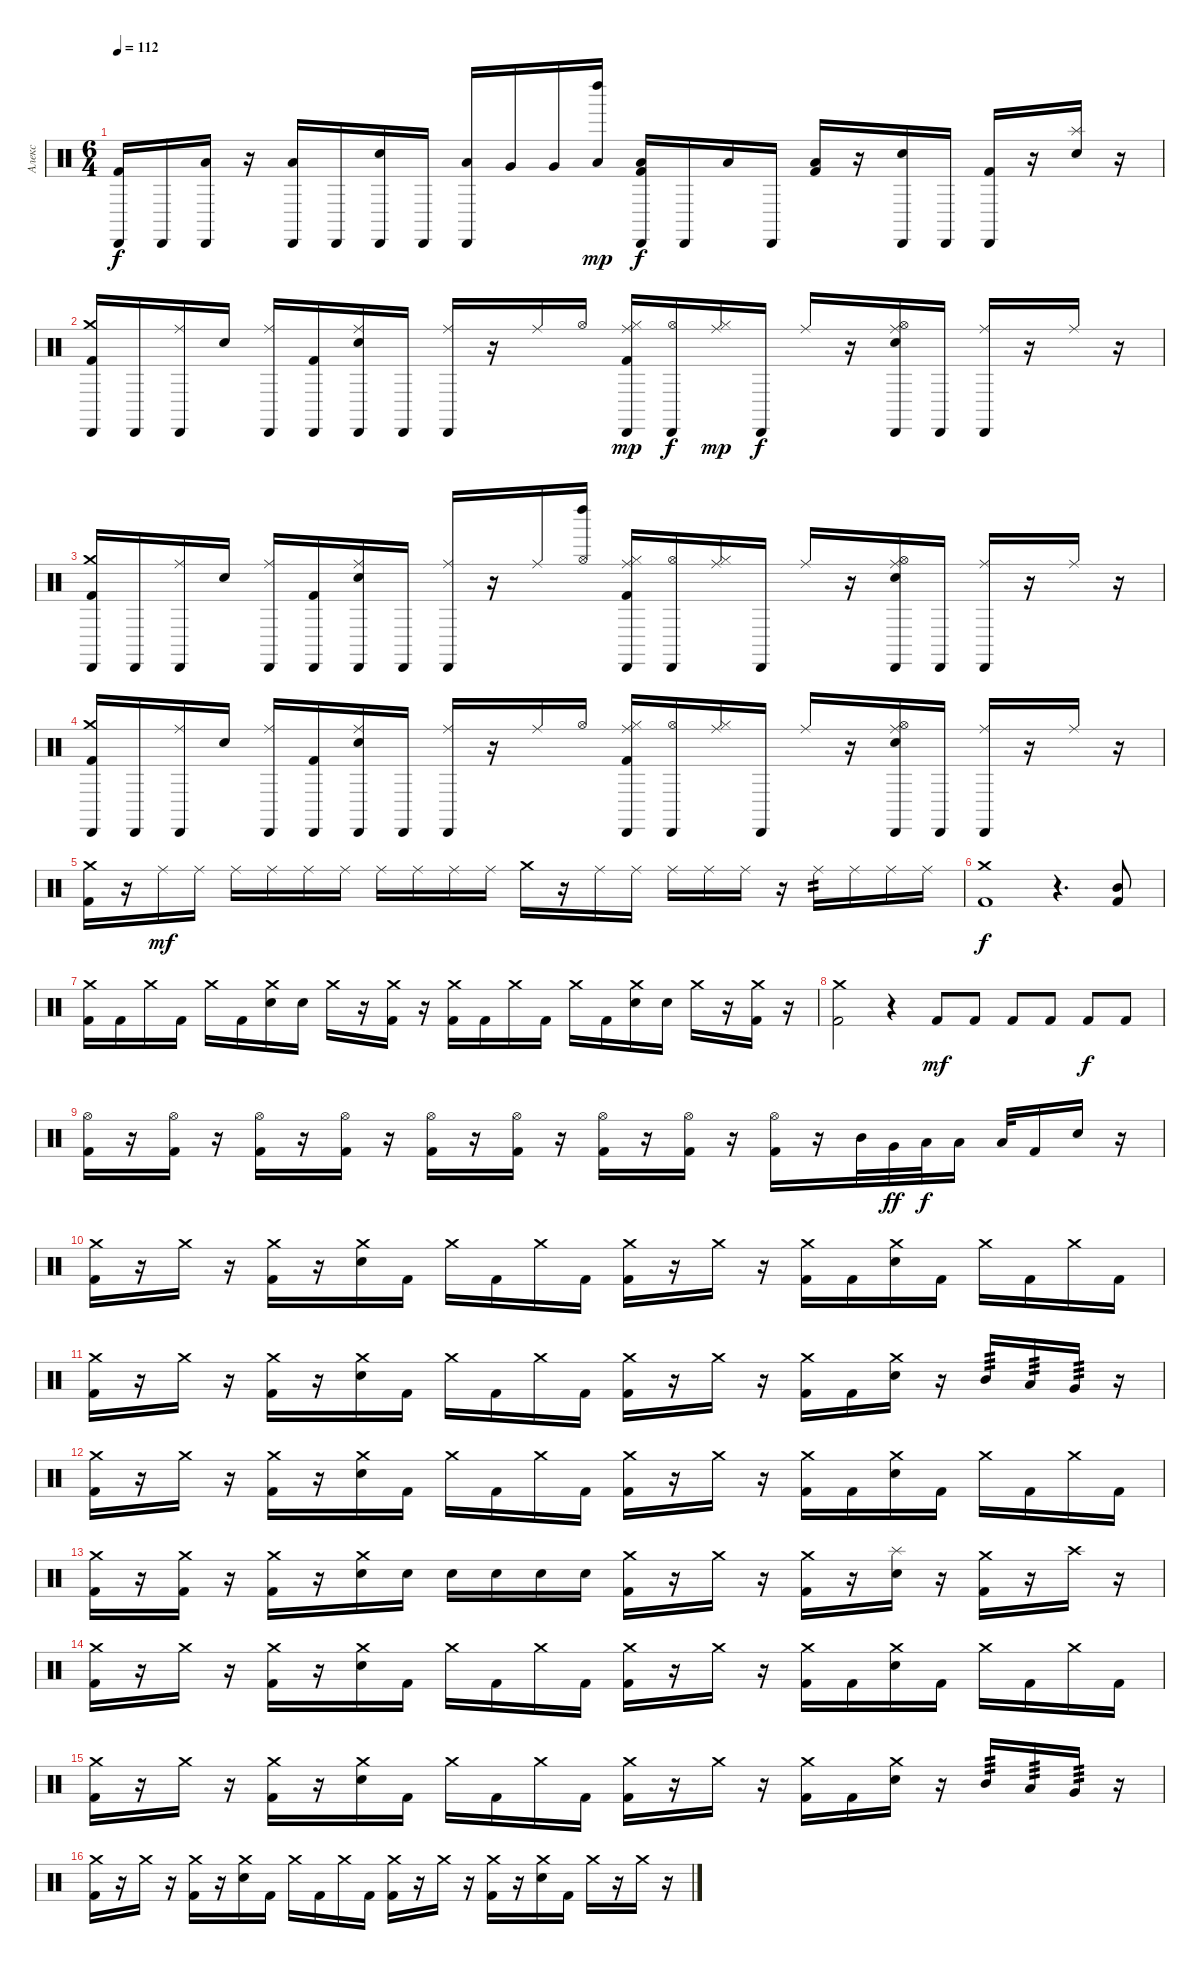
\track ("Алекс" "Алекс") {instrument percussion}
\staff {score}
\articulation defaults
\ts (6 4)
\tempo 112
\clef neutral
\ks c
("Cabasa (hit)" "Kick (hit) 2").16{dy f balance 8} "Cabasa (hit)".16 ("Low Floor Tom (hit)" "Cabasa (hit)").16 r.16 ("Low Floor Tom (hit)" "Cabasa (hit)").16 "Cabasa (hit)".16 ("Electric Snare (hit)" "Cabasa (hit)").16 "Cabasa (hit)".16 ("Low Tom (hit)" "Cabasa (hit)").16{balance 12} "Very Low Tom (hit)".16{balance 8} "Very Low Tom (hit)".16{balance 11} ("Low Floor Tom (hit)" "Left Maraca (hit)").16{dy mp balance 5} ("Low Floor Tom (hit)" "Cabasa (hit)" "Kick (hit) 2").16{dy f balance 5} "Cabasa (hit)".16{balance 8} "Low Floor Tom (hit)".16 "Cabasa (hit)".16 ("Low Floor Tom (hit)" "Kick (hit) 2").16 r.16 ("Electric Snare (hit)" "Cabasa (hit)").16 "Cabasa (hit)".16{balance 4} ("Cabasa (hit)" "Kick (hit) 2").16{balance 4} r.16{balance 11} ("Splash (hit)" "Electric Snare (hit)").16{balance 4} r.16 |
("Crash medium (hit)" "Cabasa (hit)" "Kick (hit) 2").16{balance 8} "Cabasa (hit)".16 ("Ride (middle)" "Cabasa (hit)").16 "Electric Snare (hit)".16 ("Ride (middle)" "Cabasa (hit)").16 ("Cabasa (hit)" "Kick (hit) 2").16 ("Ride (middle)" "Electric Snare (hit)" "Cabasa (hit)").16 "Cabasa (hit)".16 ("Ride (middle)" "Cabasa (hit)").16 r.16 "Ride (middle)".16 "Hi-Hat (open)".16 ("Ride (middle)" "Hi-Hat (closed)" "Cabasa (hit)" "Kick (hit) 2").16{dy mp} ("Hi-Hat (open)" "Cabasa (hit)").16{dy f} ("Ride (middle)" "Hi-Hat (closed)").16{dy mp} "Cabasa (hit)".16{dy f} "Ride (middle)".16 r.16 ("Ride (middle)" "Electric Snare (hit)" "Hi-Hat (open)" "Cabasa (hit)").16 "Cabasa (hit)".16 ("Ride (middle)" "Cabasa (hit)").16 r.16 "Ride (middle)".16 r.16 |
("Crash medium (hit)" "Cabasa (hit)" "Kick (hit) 2").16 "Cabasa (hit)".16 ("Ride (middle)" "Cabasa (hit)").16 "Electric Snare (hit)".16 ("Ride (middle)" "Cabasa (hit)").16 ("Cabasa (hit)" "Kick (hit) 2").16 ("Ride (middle)" "Electric Snare (hit)" "Cabasa (hit)").16 "Cabasa (hit)".16 ("Ride (middle)" "Cabasa (hit)").16 r.16 "Ride (middle)".16 ("Hi-Hat (open)" "Left Maraca (hit)").16 ("Ride (middle)" "Hi-Hat (closed)" "Cabasa (hit)" "Kick (hit) 2").16 ("Hi-Hat (open)" "Cabasa (hit)").16 ("Ride (middle)" "Hi-Hat (closed)").16 "Cabasa (hit)".16 "Ride (middle)".16 r.16 ("Ride (middle)" "Electric Snare (hit)" "Hi-Hat (open)" "Cabasa (hit)").16 "Cabasa (hit)".16 ("Ride (middle)" "Cabasa (hit)").16 r.16 "Ride (middle)".16 r.16 |
("Crash medium (hit)" "Cabasa (hit)" "Kick (hit) 2").16 "Cabasa (hit)".16 ("Ride (middle)" "Cabasa (hit)").16 "Electric Snare (hit)".16 ("Ride (middle)" "Cabasa (hit)").16 ("Cabasa (hit)" "Kick (hit) 2").16 ("Ride (middle)" "Electric Snare (hit)" "Cabasa (hit)").16 "Cabasa (hit)".16 ("Ride (middle)" "Cabasa (hit)").16 r.16 "Ride (middle)".16 "Hi-Hat (open)".16 ("Ride (middle)" "Hi-Hat (closed)" "Cabasa (hit)" "Kick (hit) 2").16 ("Hi-Hat (open)" "Cabasa (hit)").16 ("Ride (middle)" "Hi-Hat (closed)").16 "Cabasa (hit)".16 "Ride (middle)".16 r.16 ("Ride (middle)" "Electric Snare (hit)" "Hi-Hat (open)" "Cabasa (hit)").16 "Cabasa (hit)".16 ("Ride (middle)" "Cabasa (hit)").16 r.16 "Ride (middle)".16 r.16 |
("Crash medium (hit)" "Kick (hit) 2").16 r.16 "Ride (middle)".16{dy mf} "Ride (middle)".16 "Ride (middle)".16 "Ride (middle)".16 "Ride (middle)".16 "Ride (middle)".16 "Ride (middle)".16 "Ride (middle)".16 "Ride (middle)".16 "Ride (middle)".16 "Crash medium (hit)".16 r.16 "Ride (middle)".16 "Ride (middle)".16 "Ride (middle)".16 "Ride (middle)".16 "Ride (middle)".16 r.16 "Ride (middle)".16{tp 2} "Ride (middle)".16 "Ride (middle)".16 "Ride (middle)".16 |
("Crash medium (hit)" "Kick (hit) 2").1{dy f balance 8} r.4{d} ("Mid Tom (hit)" "Kick (hit) 2").8 |
("Crash medium (hit)" "Kick (hit) 2").16 "Kick (hit) 2".16 "Crash medium (hit)".16 "Kick (hit) 2".16 "Crash medium (hit)".16 "Kick (hit) 2".16 ("Crash medium (hit)" "Electric Snare (hit)").16 "Electric Snare (hit)".16 "Crash medium (hit)".16 r.16 ("Crash medium (hit)" "Kick (hit) 2").16 r.16 ("Crash medium (hit)" "Kick (hit) 2").16 "Kick (hit) 2".16 "Crash medium (hit)".16 "Kick (hit) 2".16 "Crash medium (hit)".16 "Kick (hit) 2".16 ("Crash medium (hit)" "Electric Snare (hit)").16 "Electric Snare (hit)".16 "Crash medium (hit)".16 r.16 ("Crash medium (hit)" "Kick (hit) 2").16 r.16 |
("Crash medium (hit)" "Kick (hit) 2").2 r.4 "Kick (hit) 2".8{dy mf volume 5} "Kick (hit) 2".8 "Kick (hit) 2".8 "Kick (hit) 2".8 "Kick (hit) 2".8{dy f} "Kick (hit) 2".8 |
("Hi-Hat (open)" "Kick (hit) 2").16 r.16 ("Hi-Hat (open)" "Kick (hit) 2").16{volume 9} r.16 ("Hi-Hat (open)" "Kick (hit) 2").16 r.16 ("Hi-Hat (open)" "Kick (hit) 2").16 r.16 ("Hi-Hat (open)" "Kick (hit) 2").16 r.16 ("Hi-Hat (open)" "Kick (hit) 2").16 r.16 ("Hi-Hat (open)" "Kick (hit) 2").16 r.16 ("Hi-Hat (open)" "Kick (hit) 2").16 r.16 ("Hi-Hat (open)" "Kick (hit) 2").16 r.16 "Mid Tom (hit)".32 "Very Low Tom (hit)".32{dy ff} "Low Tom (hit)".32{dy f} "Low Floor Tom (hit)".16 "Low Floor Tom (hit)".32 "Kick (hit) 2".16 "Electric Snare (hit)".16 r.16 |
("Crash medium (hit)" "Kick (hit) 2").16 r.16 "Crash medium (hit)".16 r.16 ("Crash medium (hit)" "Kick (hit) 2").16 r.16 ("Crash medium (hit)" "Electric Snare (hit)").16 "Kick (hit) 2".16 "Crash medium (hit)".16 "Kick (hit) 2".16 "Crash medium (hit)".16 "Kick (hit) 2".16 ("Crash medium (hit)" "Kick (hit) 2").16 r.16 "Crash medium (hit)".16 r.16 ("Crash medium (hit)" "Kick (hit) 2").16 "Kick (hit) 2".16 ("Crash medium (hit)" "Electric Snare (hit)").16 "Kick (hit) 2".16 "Crash medium (hit)".16 "Kick (hit) 2".16 "Crash medium (hit)".16 "Kick (hit) 2".16 |
("Crash medium (hit)" "Kick (hit) 2").16 r.16 "Crash medium (hit)".16 r.16 ("Crash medium (hit)" "Kick (hit) 2").16 r.16 ("Crash medium (hit)" "Electric Snare (hit)").16 "Kick (hit) 2".16 "Crash medium (hit)".16 "Kick (hit) 2".16 "Crash medium (hit)".16 "Kick (hit) 2".16 ("Crash medium (hit)" "Kick (hit) 2").16 r.16 "Crash medium (hit)".16 r.16 ("Crash medium (hit)" "Kick (hit) 2").16 "Kick (hit) 2".16 ("Crash medium (hit)" "Electric Snare (hit)").16 r.16 "Mid Tom (hit)".16{tp 3} "Low Tom (hit)".16{tp 3} "Very Low Tom (hit)".16{tp 3} r.16 |
("Crash medium (hit)" "Kick (hit) 2").16 r.16 "Crash medium (hit)".16 r.16 ("Crash medium (hit)" "Kick (hit) 2").16 r.16 ("Crash medium (hit)" "Electric Snare (hit)").16 "Kick (hit) 2".16 "Crash medium (hit)".16 "Kick (hit) 2".16 "Crash medium (hit)".16 "Kick (hit) 2".16 ("Crash medium (hit)" "Kick (hit) 2").16 r.16 "Crash medium (hit)".16 r.16 ("Crash medium (hit)" "Kick (hit) 2").16 "Kick (hit) 2".16 ("Crash medium (hit)" "Electric Snare (hit)").16 "Kick (hit) 2".16 "Crash medium (hit)".16 "Kick (hit) 2".16 "Crash medium (hit)".16 "Kick (hit) 2".16 |
("Crash medium (hit)" "Kick (hit) 2").16 r.16 ("Crash medium (hit)" "Kick (hit) 2").16 r.16 ("Crash medium (hit)" "Kick (hit) 2").16 r.16 ("Crash medium (hit)" "Electric Snare (hit)").16 "Electric Snare (hit)".16 "Electric Snare (hit)".16 "Electric Snare (hit)".16 "Electric Snare (hit)".16 "Electric Snare (hit)".16 ("Crash medium (hit)" "Kick (hit) 2").16 r.16 "Crash medium (hit)".16 r.16 ("Crash medium (hit)" "Kick (hit) 2").16 r.16 ("Splash (hit)" "Electric Snare (hit)").16 r.16 ("Crash medium (hit)" "Kick (hit) 2").16 r.16 "Crash high (hit)".16 r.16 |
("Crash medium (hit)" "Kick (hit) 2").16 r.16 "Crash medium (hit)".16 r.16 ("Crash medium (hit)" "Kick (hit) 2").16 r.16 ("Crash medium (hit)" "Electric Snare (hit)").16 "Kick (hit) 2".16 "Crash medium (hit)".16 "Kick (hit) 2".16 "Crash medium (hit)".16 "Kick (hit) 2".16 ("Crash medium (hit)" "Kick (hit) 2").16 r.16 "Crash medium (hit)".16 r.16 ("Crash medium (hit)" "Kick (hit) 2").16 "Kick (hit) 2".16 ("Crash medium (hit)" "Electric Snare (hit)").16 "Kick (hit) 2".16 "Crash medium (hit)".16 "Kick (hit) 2".16 "Crash medium (hit)".16 "Kick (hit) 2".16 |
("Crash medium (hit)" "Kick (hit) 2").16 r.16 "Crash medium (hit)".16 r.16 ("Crash medium (hit)" "Kick (hit) 2").16 r.16 ("Crash medium (hit)" "Electric Snare (hit)").16 "Kick (hit) 2".16 "Crash medium (hit)".16 "Kick (hit) 2".16 "Crash medium (hit)".16 "Kick (hit) 2".16 ("Crash medium (hit)" "Kick (hit) 2").16 r.16 "Crash medium (hit)".16 r.16 ("Crash medium (hit)" "Kick (hit) 2").16 "Kick (hit) 2".16 ("Crash medium (hit)" "Electric Snare (hit)").16 r.16 "Mid Tom (hit)".16{tp 3} "Low Tom (hit)".16{tp 3} "Very Low Tom (hit)".16{tp 3} r.16 |
("Crash medium (hit)" "Kick (hit) 2").16 r.16 "Crash medium (hit)".16 r.16 ("Crash medium (hit)" "Kick (hit) 2").16 r.16 ("Crash medium (hit)" "Electric Snare (hit)").16 "Kick (hit) 2".16 "Crash medium (hit)".16 "Kick (hit) 2".16 "Crash medium (hit)".16 "Kick (hit) 2".16 ("Crash medium (hit)" "Kick (hit) 2").16 r.16 "Crash medium (hit)".16 r.16 ("Crash medium (hit)" "Kick (hit) 2").16 r.16 ("Crash medium (hit)" "Electric Snare (hit)").16 "Kick (hit) 2".16 "Crash medium (hit)".16 r.16 "Crash medium (hit)".16 r.16
